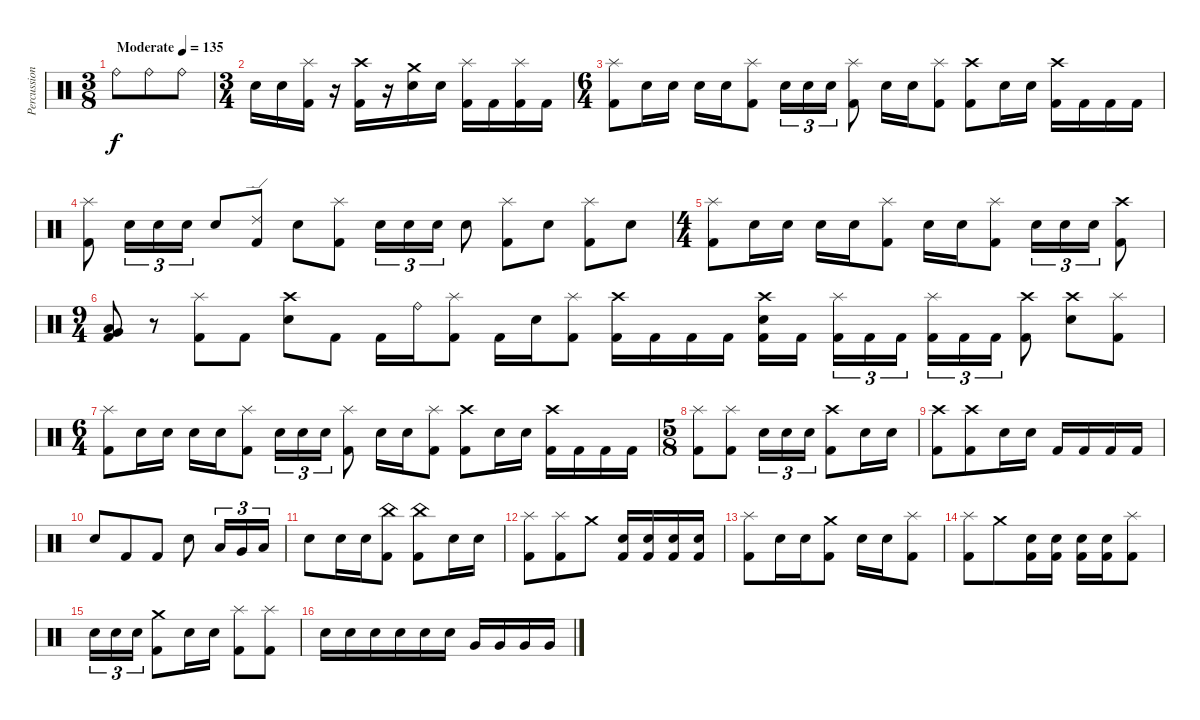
\track ("Percussion" "Percussion") {instrument percussion}
\staff {score}
\articulation defaults
\ts (3 8)
\tempo (135 "Moderate")
\clef neutral
\ks c "Ride (bell)".8{dy f} "Ride (bell)".8 "Ride (bell)".8
|
\ts (3 4)
"Electric Snare (hit)".16 "Electric Snare (hit)".16 ("Splash (hit)" "Kick (hit) 2").16 r.16 ("Crash high (hit)" "Kick (hit) 2").16 r.16 ("Crash medium (hit)" "Electric Snare (hit)").16 "Electric Snare (hit)".16 ("Splash (hit)" "Kick (hit) 2").16 "Kick (hit) 2".16 ("Splash (hit)" "Kick (hit) 2").16 "Kick (hit) 2".16 |
\ts (6 4)
("Splash (hit)" "Kick (hit) 2").8 "Electric Snare (hit)".16 "Electric Snare (hit)".16 "Electric Snare (hit)".16 "Electric Snare (hit)".16 ("Splash (hit)" "Kick (hit) 2").8 "Electric Snare (hit)".16{tu (3 2)} "Electric Snare (hit)".16{tu (3 2)} "Electric Snare (hit)".16{tu (3 2)} ("Splash (hit)" "Kick (hit) 2").8 "Electric Snare (hit)".16 "Electric Snare (hit)".16 ("Splash (hit)" "Kick (hit) 2").8 ("Crash high (hit)" "Kick (hit) 2").8 "Electric Snare (hit)".16 "Electric Snare (hit)".16 ("Crash high (hit)" "Kick (hit) 2").16 "Kick (hit) 2".16 "Kick (hit) 2".16 "Kick (hit) 2".16 |
("Splash (hit)" "Kick (hit) 2").8 "Electric Snare (hit)".16{tu (3 2)} "Electric Snare (hit)".16{tu (3 2)} "Electric Snare (hit)".16{tu (3 2)} "Electric Snare (hit)".8 ("Ride (edge) 2" "Kick (hit) 2").8 "Electric Snare (hit)".8 ("Splash (hit)" "Kick (hit) 2").8 "Electric Snare (hit)".16{tu (3 2)} "Electric Snare (hit)".16{tu (3 2)} "Electric Snare (hit)".16{tu (3 2)} "Electric Snare (hit)".8 ("Splash (hit)" "Kick (hit) 2").8 "Electric Snare (hit)".8 ("Splash (hit)" "Kick (hit) 2").8 "Electric Snare (hit)".8 |
\ts (4 4)
("Splash (hit)" "Kick (hit) 2").8 "Electric Snare (hit)".16 "Electric Snare (hit)".16 "Electric Snare (hit)".16 "Electric Snare (hit)".16 ("Splash (hit)" "Kick (hit) 2").8 "Electric Snare (hit)".16 "Electric Snare (hit)".16 ("Splash (hit)" "Kick (hit) 2").8 "Electric Snare (hit)".16{tu (3 2)} "Electric Snare (hit)".16{tu (3 2)} "Electric Snare (hit)".16{tu (3 2)} ("Crash high (hit)" "Kick (hit) 2").8 |
\ts (9 4)
("Very Low Tom (hit)" "Low Floor Tom (hit)" "Kick (hit) 2").8 r.8 ("Splash (hit)" "Kick (hit) 2").8 "Kick (hit) 2".8 ("Crash high (hit)" "Electric Snare (hit)").8 "Kick (hit) 2".8 "Kick (hit) 2".16 "Ride (bell)".16 ("Splash (hit)" "Kick (hit) 2").8 "Kick (hit) 2".16 "Electric Snare (hit)".16 ("Splash (hit)" "Kick (hit) 2").8 ("Crash high (hit)" "Kick (hit) 2").16 "Kick (hit) 2".16 "Kick (hit) 2".16 "Kick (hit) 2".16 ("Crash high (hit)" "Electric Snare (hit)" "Kick (hit) 2").16 "Kick (hit) 2".16{beam splitsecondary} ("Splash (hit)" "Kick (hit) 2").16{tu (3 2)} "Kick (hit) 2".16{tu (3 2)} "Kick (hit) 2".16{tu (3 2) beam splitsecondary} ("Splash (hit)" "Kick (hit) 2").16{tu (3 2)} "Kick (hit) 2".16{tu (3 2)} "Kick (hit) 2".16{tu (3 2)} ("Crash high (hit)" "Kick (hit) 2").8 ("Crash high (hit)" "Electric Snare (hit)").8 ("Splash (hit)" "Kick (hit) 2").8 |
\ts (6 4)
("Splash (hit)" "Kick (hit) 2").8 "Electric Snare (hit)".16 "Electric Snare (hit)".16 "Electric Snare (hit)".16 "Electric Snare (hit)".16 ("Splash (hit)" "Kick (hit) 2").8 "Electric Snare (hit)".16{tu (3 2)} "Electric Snare (hit)".16{tu (3 2)} "Electric Snare (hit)".16{tu (3 2)} ("Splash (hit)" "Kick (hit) 2").8 "Electric Snare (hit)".16 "Electric Snare (hit)".16 ("Splash (hit)" "Kick (hit) 2").8 ("Crash high (hit)" "Kick (hit) 2").8 "Electric Snare (hit)".16 "Electric Snare (hit)".16 ("Crash high (hit)" "Kick (hit) 2").16 "Kick (hit) 2".16 "Kick (hit) 2".16 "Kick (hit) 2".16 |
\ts (5 8)
("Splash (hit)" "Kick (hit) 2").8 ("Splash (hit)" "Kick (hit) 2").8 "Electric Snare (hit)".16{tu (3 2)} "Electric Snare (hit)".16{tu (3 2)} "Electric Snare (hit)".16{tu (3 2)} ("Crash high (hit)" "Kick (hit) 2").8 "Electric Snare (hit)".16 "Electric Snare (hit)".16 |
("Crash high (hit)" "Kick (hit) 2").8 ("Crash high (hit)" "Kick (hit) 2").8 "Electric Snare (hit)".16 "Electric Snare (hit)".16 "Kick (hit) 2".16 "Kick (hit) 2".16 "Kick (hit) 2".16 "Kick (hit) 2".16 |
"Electric Snare (hit)".8 "Kick (hit) 2".8 "Kick (hit) 2".8 "Electric Snare (hit)".8 "Low Tom (hit)".16{tu (3 2)} "Very Low Tom (hit)".16{tu (3 2)} "Low Floor Tom (hit)".16{tu (3 2)} |
"Electric Snare (hit)".8 "Electric Snare (hit)".16 "Electric Snare (hit)".16 ("China (hit)" "Kick (hit) 2").8 ("China (hit)" "Kick (hit) 2").8 "Electric Snare (hit)".16 "Electric Snare (hit)".16 |
("Splash (hit)" "Kick (hit) 2").8 ("Splash (hit)" "Kick (hit) 2").8 "Crash medium (hit)".8 ("Kick (hit) 2" "Electric Snare (hit)").16 ("Kick (hit) 2" "Electric Snare (hit)").16 ("Kick (hit) 2" "Electric Snare (hit)").16 ("Kick (hit) 2" "Electric Snare (hit)").16 |
("Splash (hit)" "Kick (hit) 2").8 "Electric Snare (hit)".16 "Electric Snare (hit)".16 ("Crash medium (hit)" "Kick (hit) 2").8 "Electric Snare (hit)".16 "Electric Snare (hit)".16 ("Splash (hit)" "Kick (hit) 2").8 |
("Splash (hit)" "Kick (hit) 2").8 "Crash medium (hit)".8 ("Electric Snare (hit)" "Kick (hit) 2").16 ("Electric Snare (hit)" "Kick (hit) 2").16 ("Electric Snare (hit)" "Kick (hit) 2").16 ("Electric Snare (hit)" "Kick (hit) 2").16 ("Splash (hit)" "Kick (hit) 2").8 |
"Electric Snare (hit)".16{tu (3 2)} "Electric Snare (hit)".16{tu (3 2)} "Electric Snare (hit)".16{tu (3 2)} ("Crash medium (hit)" "Kick (hit) 2").8 "Electric Snare (hit)".16 "Electric Snare (hit)".16 ("Splash (hit)" "Kick (hit) 2").8 ("Splash (hit)" "Kick (hit) 2").8 |
"Electric Snare (hit)".16 "Electric Snare (hit)".16 "Electric Snare (hit)".16 "Electric Snare (hit)".16 "Electric Snare (hit)".16 "Electric Snare (hit)".16 "Very Low Tom (hit)".16 "Very Low Tom (hit)".16 "Very Low Tom (hit)".16 "Very Low Tom (hit)".16
